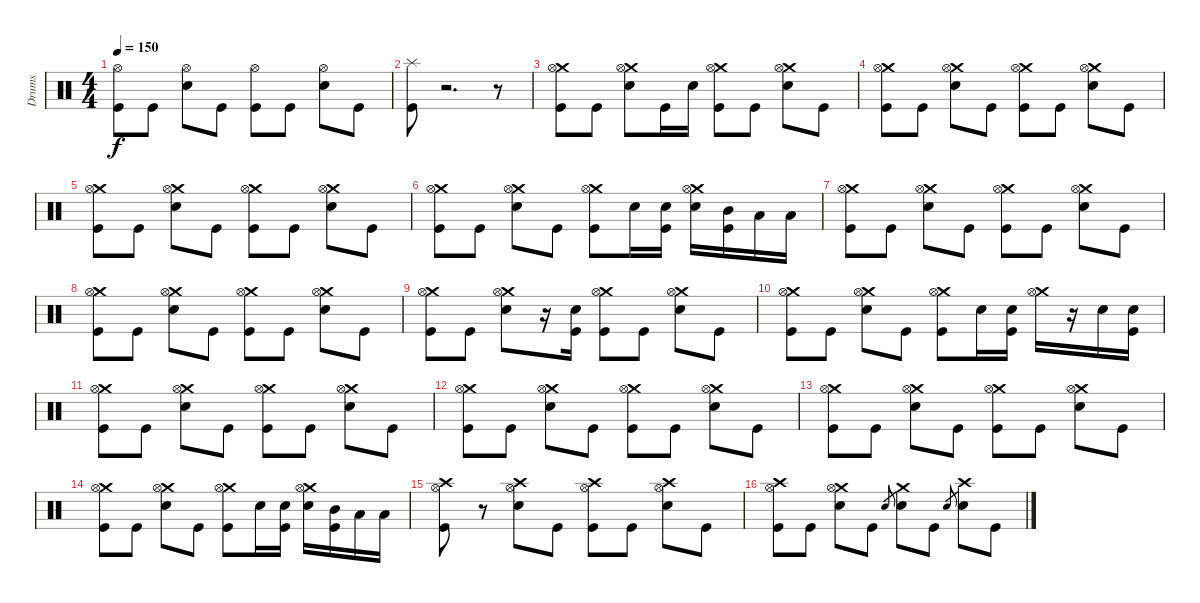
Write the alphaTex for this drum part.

\track ("Drums" "Drums") {instrument percussion}
\staff {score}
\articulation defaults
\ts (4 4)
\tempo 150
\clef neutral
\ks c
("Hi-Hat (open)" "Kick (hit)").8{dy f} "Kick (hit)".8 ("Hi-Hat (open)" "Snare (hit) 2").8 "Kick (hit)".8 ("Hi-Hat (open)" "Kick (hit)").8 "Kick (hit)".8 ("Hi-Hat (open)" "Snare (hit) 2").8 "Kick (hit)".8 |
("Splash (hit)" "Kick (hit)").8 r.2{d} r.8 |
("Crash medium (hit)" "Hi-Hat (open)" "Kick (hit)").8 "Kick (hit)".8 ("Crash medium (hit)" "Hi-Hat (open)" "Snare (hit) 2").8 "Kick (hit)".16 "Snare (hit) 2".16 ("Crash medium (hit)" "Hi-Hat (open)" "Kick (hit)").8 "Kick (hit)".8 ("Crash medium (hit)" "Hi-Hat (open)" "Snare (hit) 2").8 "Kick (hit)".8 |
("Crash medium (hit)" "Hi-Hat (open)" "Kick (hit)").8 "Kick (hit)".8 ("Crash medium (hit)" "Hi-Hat (open)" "Snare (hit) 2").8 "Kick (hit)".8 ("Crash medium (hit)" "Hi-Hat (open)" "Kick (hit)").8 "Kick (hit)".8 ("Crash medium (hit)" "Hi-Hat (open)" "Snare (hit) 2").8 "Kick (hit)".8 |
("Crash medium (hit)" "Hi-Hat (open)" "Kick (hit)").8 "Kick (hit)".8 ("Crash medium (hit)" "Hi-Hat (open)" "Snare (hit) 2").8 "Kick (hit)".8 ("Crash medium (hit)" "Hi-Hat (open)" "Kick (hit)").8 "Kick (hit)".8 ("Crash medium (hit)" "Hi-Hat (open)" "Snare (hit) 2").8 "Kick (hit)".8 |
("Crash medium (hit)" "Hi-Hat (open)" "Kick (hit)").8 "Kick (hit)".8 ("Crash medium (hit)" "Hi-Hat (open)" "Snare (hit) 2").8 "Kick (hit)".8 ("Crash medium (hit)" "Hi-Hat (open)" "Kick (hit)").8 "Snare (hit) 2".16 ("Snare (hit) 2" "Kick (hit)").16 ("Crash medium (hit)" "Hi-Hat (open)" "Snare (hit) 2").16 ("Mid Tom (hit)" "Kick (hit)").16 "Low Tom (hit)".16 "Low Tom (hit)".16 |
("Crash medium (hit)" "Hi-Hat (open)" "Kick (hit)").8 "Kick (hit)".8 ("Crash medium (hit)" "Hi-Hat (open)" "Snare (hit) 2").8 "Kick (hit)".8 ("Crash medium (hit)" "Hi-Hat (open)" "Kick (hit)").8 "Kick (hit)".8 ("Crash medium (hit)" "Hi-Hat (open)" "Snare (hit) 2").8 "Kick (hit)".8 |
("Crash medium (hit)" "Hi-Hat (open)" "Kick (hit)").8 "Kick (hit)".8 ("Crash medium (hit)" "Hi-Hat (open)" "Snare (hit) 2").8 "Kick (hit)".8 ("Crash medium (hit)" "Hi-Hat (open)" "Kick (hit)").8 "Kick (hit)".8 ("Crash medium (hit)" "Hi-Hat (open)" "Snare (hit) 2").8 "Kick (hit)".8 |
("Crash medium (hit)" "Hi-Hat (open)" "Kick (hit)").8 "Kick (hit)".8 ("Crash medium (hit)" "Hi-Hat (open)" "Snare (hit) 2").8 r.16 ("Snare (hit) 2" "Kick (hit)").16 ("Crash medium (hit)" "Hi-Hat (open)" "Kick (hit)").8 "Kick (hit)".8 ("Crash medium (hit)" "Hi-Hat (open)" "Snare (hit) 2").8 "Kick (hit)".8 |
("Crash medium (hit)" "Hi-Hat (open)" "Kick (hit)").8 "Kick (hit)".8 ("Crash medium (hit)" "Hi-Hat (open)" "Snare (hit) 2").8 "Kick (hit)".8 ("Crash medium (hit)" "Hi-Hat (open)" "Kick (hit)").8 "Snare (hit) 2".16 ("Snare (hit) 2" "Kick (hit)").16 ("Crash medium (hit)" "Hi-Hat (open)").16 r.16 "Snare (hit) 2".16 ("Snare (hit) 2" "Kick (hit)").16 |
("Crash medium (hit)" "Hi-Hat (open)" "Kick (hit)").8 "Kick (hit)".8 ("Crash medium (hit)" "Hi-Hat (open)" "Snare (hit) 2").8 "Kick (hit)".8 ("Crash medium (hit)" "Hi-Hat (open)" "Kick (hit)").8 "Kick (hit)".8 ("Crash medium (hit)" "Hi-Hat (open)" "Snare (hit) 2").8 "Kick (hit)".8 |
("Crash medium (hit)" "Hi-Hat (open)" "Kick (hit)").8 "Kick (hit)".8 ("Crash medium (hit)" "Hi-Hat (open)" "Snare (hit) 2").8 "Kick (hit)".8 ("Crash medium (hit)" "Hi-Hat (open)" "Kick (hit)").8 "Kick (hit)".8 ("Crash medium (hit)" "Hi-Hat (open)" "Snare (hit) 2").8 "Kick (hit)".8 |
("Crash medium (hit)" "Hi-Hat (open)" "Kick (hit)").8 "Kick (hit)".8 ("Crash medium (hit)" "Hi-Hat (open)" "Snare (hit) 2").8 "Kick (hit)".8 ("Crash medium (hit)" "Hi-Hat (open)" "Kick (hit)").8 "Kick (hit)".8 ("Crash medium (hit)" "Hi-Hat (open)" "Snare (hit) 2").8 "Kick (hit)".8 |
("Crash medium (hit)" "Hi-Hat (open)" "Kick (hit)").8 "Kick (hit)".8 ("Crash medium (hit)" "Hi-Hat (open)" "Snare (hit) 2").8 "Kick (hit)".8 ("Crash medium (hit)" "Hi-Hat (open)" "Kick (hit)").8 "Snare (hit) 2".16 ("Snare (hit) 2" "Kick (hit)").16 ("Crash medium (hit)" "Hi-Hat (open)" "Snare (hit) 2").16 ("Mid Tom (hit)" "Kick (hit)").16 "Low Tom (hit)".16 "Low Tom (hit)".16 |
("Crash high (hit)" "Hi-Hat (open)" "Kick (hit)").8 r.8 ("Crash high (hit)" "Hi-Hat (open)" "Snare (hit) 2").8 "Kick (hit)".8 ("Crash high (hit)" "Hi-Hat (open)" "Kick (hit)").8 "Kick (hit)".8 ("Crash high (hit)" "Hi-Hat (open)" "Snare (hit) 2").8 "Kick (hit)".8 |
("Crash high (hit)" "Hi-Hat (open)" "Kick (hit)").8 "Kick (hit)".8 ("Crash medium (hit)" "Hi-Hat (open)" "Snare (hit) 2").8 "Kick (hit)".8 "Snare (hit) 2".8{gr} ("Crash medium (hit)" "Snare (hit) 2").8 "Kick (hit)".8 "Snare (hit) 2".8{gr} ("Crash high (hit)" "Snare (hit) 2").8 "Kick (hit)".8
